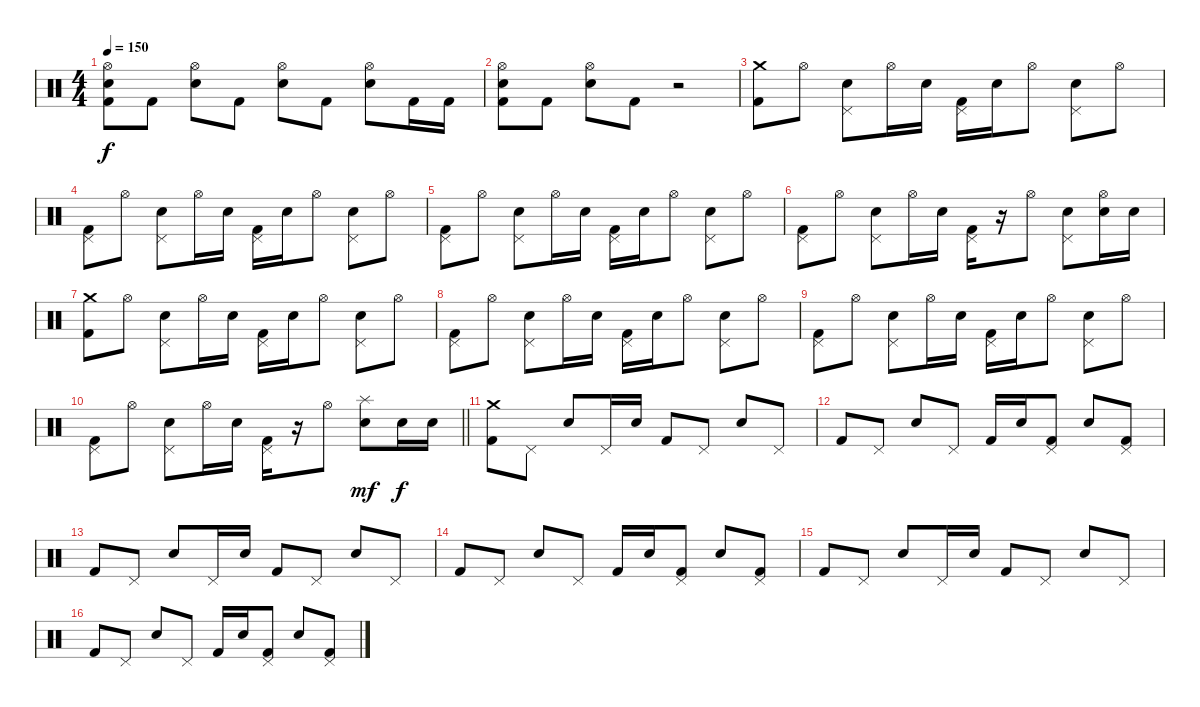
\track "" {instrument percussion}
\staff {score}
\articulation defaults
\ts (4 4)
\tempo 150
\clef neutral
\ks c
("Hi-Hat (open)" "Snare (hit) 2" "Kick (hit) 2").8{dy f} "Kick (hit) 2".8 ("Hi-Hat (open)" "Snare (hit) 2").8 "Kick (hit) 2".8 ("Hi-Hat (open)" "Snare (hit) 2").8 "Kick (hit) 2".8 ("Hi-Hat (open)" "Snare (hit) 2").8 "Kick (hit) 2".16 "Kick (hit) 2".16 |
("Hi-Hat (open)" "Snare (hit) 2" "Kick (hit) 2").8 "Kick (hit) 2".8 ("Hi-Hat (open)" "Snare (hit) 2").8 "Kick (hit) 2".8 r.2 |
("Crash medium (hit)" "Kick (hit) 2").8 "Hi-Hat (open)".8 ("Pedal Hi-Hat (hit)" "Snare (hit) 2").8 "Hi-Hat (open)".16 "Snare (hit) 2".16 ("Pedal Hi-Hat (hit)" "Kick (hit) 2").16 "Snare (hit) 2".16 "Hi-Hat (open)".8 ("Pedal Hi-Hat (hit)" "Snare (hit) 2").8 "Hi-Hat (open)".8 |
("Pedal Hi-Hat (hit)" "Kick (hit) 2").8 "Hi-Hat (open)".8 ("Pedal Hi-Hat (hit)" "Snare (hit) 2").8 "Hi-Hat (open)".16 "Snare (hit) 2".16 ("Pedal Hi-Hat (hit)" "Kick (hit) 2").16 "Snare (hit) 2".16 "Hi-Hat (open)".8 ("Pedal Hi-Hat (hit)" "Snare (hit) 2").8 "Hi-Hat (open)".8 |
("Pedal Hi-Hat (hit)" "Kick (hit) 2").8 "Hi-Hat (open)".8 ("Pedal Hi-Hat (hit)" "Snare (hit) 2").8 "Hi-Hat (open)".16 "Snare (hit) 2".16 ("Pedal Hi-Hat (hit)" "Kick (hit) 2").16 "Snare (hit) 2".16 "Hi-Hat (open)".8 ("Pedal Hi-Hat (hit)" "Snare (hit) 2").8 "Hi-Hat (open)".8 |
("Pedal Hi-Hat (hit)" "Kick (hit) 2").8 "Hi-Hat (open)".8 ("Pedal Hi-Hat (hit)" "Snare (hit) 2").8 "Hi-Hat (open)".16 "Snare (hit) 2".16 ("Pedal Hi-Hat (hit)" "Kick (hit) 2").16 r.16 "Hi-Hat (open)".8 ("Pedal Hi-Hat (hit)" "Snare (hit) 2").8 ("Hi-Hat (open)" "Snare (hit) 2").16 "Snare (hit) 2".16 |
("Crash medium (hit)" "Kick (hit) 2").8 "Hi-Hat (open)".8 ("Pedal Hi-Hat (hit)" "Snare (hit) 2").8 "Hi-Hat (open)".16 "Snare (hit) 2".16 ("Pedal Hi-Hat (hit)" "Kick (hit) 2").16 "Snare (hit) 2".16 "Hi-Hat (open)".8 ("Pedal Hi-Hat (hit)" "Snare (hit) 2").8 "Hi-Hat (open)".8 |
("Pedal Hi-Hat (hit)" "Kick (hit) 2").8 "Hi-Hat (open)".8 ("Pedal Hi-Hat (hit)" "Snare (hit) 2").8 "Hi-Hat (open)".16 "Snare (hit) 2".16 ("Pedal Hi-Hat (hit)" "Kick (hit) 2").16 "Snare (hit) 2".16 "Hi-Hat (open)".8 ("Pedal Hi-Hat (hit)" "Snare (hit) 2").8 "Hi-Hat (open)".8 |
("Pedal Hi-Hat (hit)" "Kick (hit) 2").8 "Hi-Hat (open)".8 ("Pedal Hi-Hat (hit)" "Snare (hit) 2").8 "Hi-Hat (open)".16 "Snare (hit) 2".16 ("Pedal Hi-Hat (hit)" "Kick (hit) 2").16 "Snare (hit) 2".16 "Hi-Hat (open)".8 ("Pedal Hi-Hat (hit)" "Snare (hit) 2").8 "Hi-Hat (open)".8 |
\barLineRight lightlight
("Pedal Hi-Hat (hit)" "Kick (hit) 2").8 "Hi-Hat (open)".8 ("Pedal Hi-Hat (hit)" "Snare (hit) 2").8 "Hi-Hat (open)".16 "Snare (hit) 2".16 ("Pedal Hi-Hat (hit)" "Kick (hit) 2").16 r.16 "Hi-Hat (open)".8 ("Splash (hit)" "Snare (hit) 2").8{dy mf} "Snare (hit) 2".16{dy f} "Snare (hit) 2".16 |
("Crash medium (hit)" "Kick (hit) 2").8 "Pedal Hi-Hat (hit)".8 "Snare (hit) 2".8 "Pedal Hi-Hat (hit)".16 "Snare (hit) 2".16 "Kick (hit) 2".8 "Pedal Hi-Hat (hit)".8 "Snare (hit) 2".8 "Pedal Hi-Hat (hit)".8 |
"Kick (hit) 2".8 "Pedal Hi-Hat (hit)".8 "Snare (hit) 2".8 "Pedal Hi-Hat (hit)".8 "Kick (hit) 2".16 "Snare (hit) 2".16 ("Pedal Hi-Hat (hit)" "Kick (hit) 2").8 "Snare (hit) 2".8 ("Pedal Hi-Hat (hit)" "Kick (hit) 2").8 |
"Kick (hit) 2".8 "Pedal Hi-Hat (hit)".8 "Snare (hit) 2".8 "Pedal Hi-Hat (hit)".16 "Snare (hit) 2".16 "Kick (hit) 2".8 "Pedal Hi-Hat (hit)".8 "Snare (hit) 2".8 "Pedal Hi-Hat (hit)".8 |
"Kick (hit) 2".8 "Pedal Hi-Hat (hit)".8 "Snare (hit) 2".8 "Pedal Hi-Hat (hit)".8 "Kick (hit) 2".16 "Snare (hit) 2".16 ("Pedal Hi-Hat (hit)" "Kick (hit) 2").8 "Snare (hit) 2".8 ("Pedal Hi-Hat (hit)" "Kick (hit) 2").8 |
"Kick (hit) 2".8 "Pedal Hi-Hat (hit)".8 "Snare (hit) 2".8 "Pedal Hi-Hat (hit)".16 "Snare (hit) 2".16 "Kick (hit) 2".8 "Pedal Hi-Hat (hit)".8 "Snare (hit) 2".8 "Pedal Hi-Hat (hit)".8 |
"Kick (hit) 2".8 "Pedal Hi-Hat (hit)".8 "Snare (hit) 2".8 "Pedal Hi-Hat (hit)".8 "Kick (hit) 2".16 "Snare (hit) 2".16 ("Pedal Hi-Hat (hit)" "Kick (hit) 2").8 "Snare (hit) 2".8 ("Pedal Hi-Hat (hit)" "Kick (hit) 2").8
